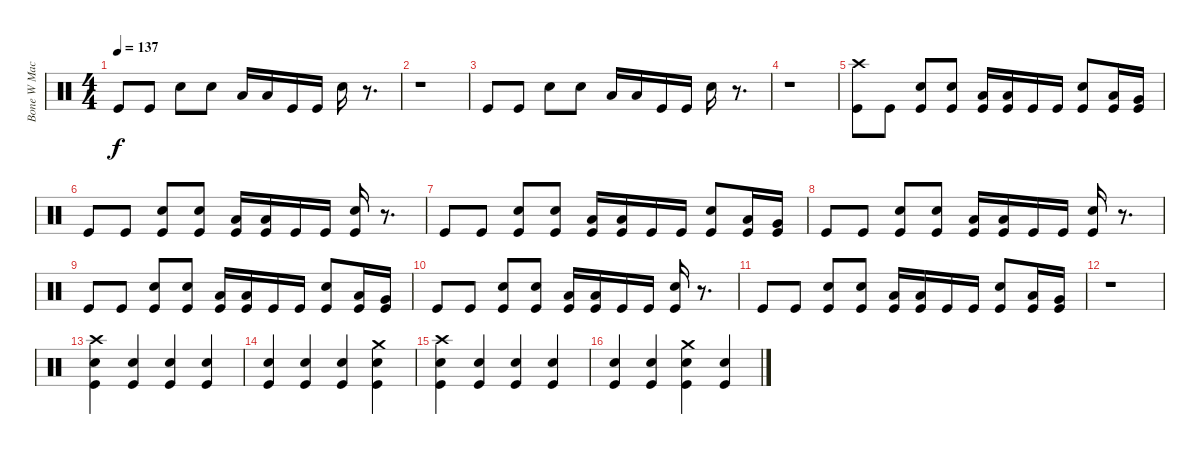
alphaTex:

\track ("Bone W Machine Drums" "Bone W Mac") {instrument percussion}
\staff {score}
\articulation defaults
\ts (4 4)
\tempo 137
\clef neutral
\ks c "Kick (hit)".8{dy f} "Kick (hit)".8 "Snare (hit) 2".8 "Snare (hit) 2".8 "Low Tom (hit)".16 "Low Tom (hit)".16 "Kick (hit)".16 "Kick (hit)".16 "Snare (hit) 2".16
r.8{d} |
r.1 |
"Kick (hit)".8 "Kick (hit)".8 "Snare (hit) 2".8 "Snare (hit) 2".8 "Low Tom (hit)".16 "Low Tom (hit)".16 "Kick (hit)".16 "Kick (hit)".16 "Snare (hit) 2".16 r.8{d} |
r.1 |
("Crash high (hit)" "Kick (hit)").8 "Kick (hit)".8 ("Snare (hit) 2" "Kick (hit)").8 ("Snare (hit) 2" "Kick (hit)").8 ("Low Tom (hit)" "Kick (hit)").16 ("Low Tom (hit)" "Kick (hit)").16 "Kick (hit)".16 "Kick (hit)".16 ("Snare (hit) 2" "Kick (hit)").8 ("Low Tom (hit)" "Kick (hit)").16 ("Very Low Tom (hit)" "Kick (hit)").16 |
"Kick (hit)".8 "Kick (hit)".8 ("Snare (hit) 2" "Kick (hit)").8 ("Snare (hit) 2" "Kick (hit)").8 ("Low Tom (hit)" "Kick (hit)").16 ("Low Tom (hit)" "Kick (hit)").16 "Kick (hit)".16 "Kick (hit)".16 ("Snare (hit) 2" "Kick (hit)").16 r.8{d} |
"Kick (hit)".8 "Kick (hit)".8 ("Snare (hit) 2" "Kick (hit)").8 ("Snare (hit) 2" "Kick (hit)").8 ("Low Tom (hit)" "Kick (hit)").16 ("Low Tom (hit)" "Kick (hit)").16 "Kick (hit)".16 "Kick (hit)".16 ("Snare (hit) 2" "Kick (hit)").8 ("Low Tom (hit)" "Kick (hit)").16 ("Very Low Tom (hit)" "Kick (hit)").16 |
"Kick (hit)".8 "Kick (hit)".8 ("Snare (hit) 2" "Kick (hit)").8 ("Snare (hit) 2" "Kick (hit)").8 ("Low Tom (hit)" "Kick (hit)").16 ("Low Tom (hit)" "Kick (hit)").16 "Kick (hit)".16 "Kick (hit)".16 ("Snare (hit) 2" "Kick (hit)").16 r.8{d} |
"Kick (hit)".8 "Kick (hit)".8 ("Snare (hit) 2" "Kick (hit)").8 ("Snare (hit) 2" "Kick (hit)").8 ("Low Tom (hit)" "Kick (hit)").16 ("Low Tom (hit)" "Kick (hit)").16 "Kick (hit)".16 "Kick (hit)".16 ("Snare (hit) 2" "Kick (hit)").8 ("Low Tom (hit)" "Kick (hit)").16 ("Very Low Tom (hit)" "Kick (hit)").16 |
"Kick (hit)".8 "Kick (hit)".8 ("Snare (hit) 2" "Kick (hit)").8 ("Snare (hit) 2" "Kick (hit)").8 ("Low Tom (hit)" "Kick (hit)").16 ("Low Tom (hit)" "Kick (hit)").16 "Kick (hit)".16 "Kick (hit)".16 ("Snare (hit) 2" "Kick (hit)").16 r.8{d} |
"Kick (hit)".8 "Kick (hit)".8 ("Snare (hit) 2" "Kick (hit)").8 ("Snare (hit) 2" "Kick (hit)").8 ("Low Tom (hit)" "Kick (hit)").16 ("Low Tom (hit)" "Kick (hit)").16 "Kick (hit)".16 "Kick (hit)".16 ("Snare (hit) 2" "Kick (hit)").8 ("Low Tom (hit)" "Kick (hit)").16 ("Very Low Tom (hit)" "Kick (hit)").16 |
r.1 |
("Crash high (hit)" "Snare (hit) 2" "Kick (hit)").4 ("Snare (hit) 2" "Kick (hit)").4 ("Snare (hit) 2" "Kick (hit)").4 ("Snare (hit) 2" "Kick (hit)").4 |
("Snare (hit) 2" "Kick (hit)").4 ("Snare (hit) 2" "Kick (hit)").4 ("Snare (hit) 2" "Kick (hit)").4 ("Crash medium (hit)" "Snare (hit) 2" "Kick (hit)").4 |
("Crash high (hit)" "Snare (hit) 2" "Kick (hit)").4 ("Snare (hit) 2" "Kick (hit)").4 ("Snare (hit) 2" "Kick (hit)").4 ("Snare (hit) 2" "Kick (hit)").4 |
("Snare (hit) 2" "Kick (hit)").4 ("Snare (hit) 2" "Kick (hit)").4 ("Crash medium (hit)" "Snare (hit) 2" "Kick (hit)").4 ("Snare (hit) 2" "Kick (hit)").4
